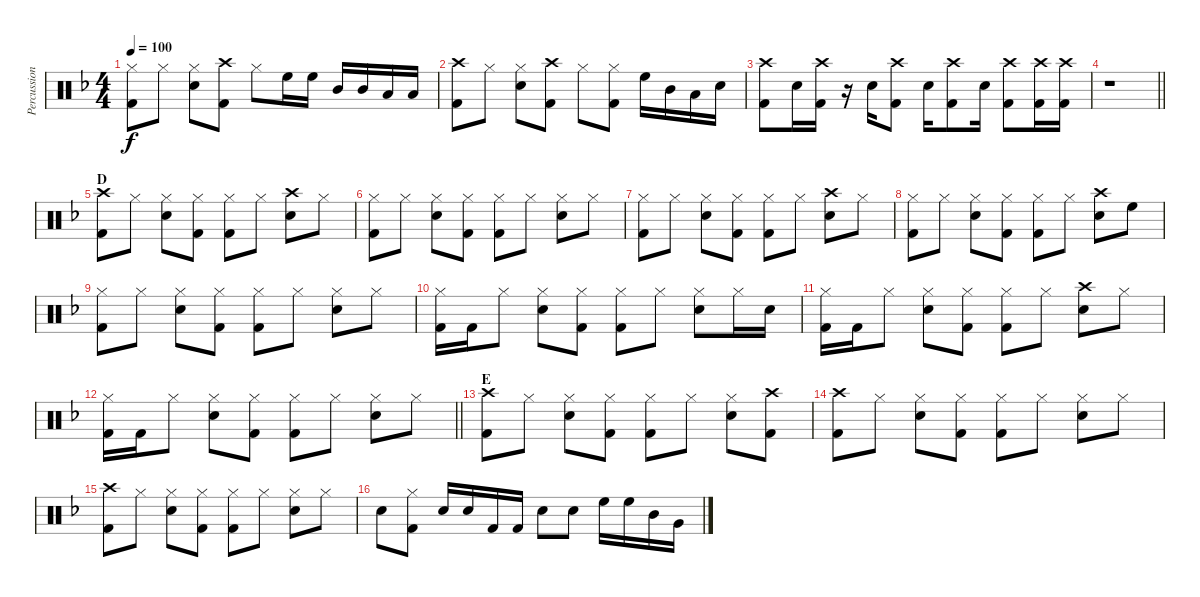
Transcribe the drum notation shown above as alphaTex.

\track ("Percussion" "Percussion") {instrument percussion}
\staff {score}
\articulation defaults
\ts (4 4)
\tempo 100
\clef neutral
\ks f
("Hi-Hat (closed)" "Kick (hit) 2").8{dy f} "Hi-Hat (closed)".8 ("Hi-Hat (closed)" "Snare (hit) 2").8 ("Crash high (hit)" "Kick (hit) 2").8 "Hi-Hat (closed)".8 "High Floor Tom (hit)".16 "High Floor Tom (hit)".16 "Mid Tom (hit)".16 "Mid Tom (hit)".16 "Low Tom (hit)".16 "Low Tom (hit)".16 |
("Crash high (hit)" "Kick (hit) 2").8 "Hi-Hat (closed)".8 ("Hi-Hat (closed)" "Snare (hit) 2").8 ("Crash high (hit)" "Kick (hit) 2").8 "Hi-Hat (closed)".8 ("Hi-Hat (closed)" "Kick (hit) 2").8 "High Floor Tom (hit)".16 "Mid Tom (hit)".16 "Low Tom (hit)".16 "Snare (hit) 2".16 |
("Crash high (hit)" "Kick (hit) 2").8 "Snare (hit) 2".16 ("Crash high (hit)" "Kick (hit) 2").16 r.16 "Snare (hit) 2".16 ("Crash high (hit)" "Kick (hit) 2").8 "Snare (hit) 2".16 ("Crash high (hit)" "Kick (hit) 2").8 "Snare (hit) 2".16 ("Crash high (hit)" "Kick (hit) 2").8 ("Crash high (hit)" "Kick (hit) 2").16 ("Crash high (hit)" "Kick (hit) 2").16 |
\barLineRight lightlight
r.1 |
\section ("" "D")
("Crash high (hit)" "Kick (hit) 2").8 "Hi-Hat (closed)".8 ("Hi-Hat (closed)" "Snare (hit) 2").8 ("Hi-Hat (closed)" "Kick (hit) 2").8 ("Hi-Hat (closed)" "Kick (hit) 2").8 "Hi-Hat (closed)".8 ("Crash high (hit)" "Snare (hit) 2").8 "Hi-Hat (closed)".8 |
("Hi-Hat (closed)" "Kick (hit) 2").8 "Hi-Hat (closed)".8 ("Hi-Hat (closed)" "Snare (hit) 2").8 ("Hi-Hat (closed)" "Kick (hit) 2").8 ("Hi-Hat (closed)" "Kick (hit) 2").8 "Hi-Hat (closed)".8 ("Hi-Hat (closed)" "Snare (hit) 2").8 "Hi-Hat (closed)".8 |
("Hi-Hat (closed)" "Kick (hit) 2").8 "Hi-Hat (closed)".8 ("Hi-Hat (closed)" "Snare (hit) 2").8 ("Hi-Hat (closed)" "Kick (hit) 2").8 ("Hi-Hat (closed)" "Kick (hit) 2").8 "Hi-Hat (closed)".8 ("Crash high (hit)" "Snare (hit) 2").8 "Hi-Hat (closed)".8 |
("Hi-Hat (closed)" "Kick (hit) 2").8 "Hi-Hat (closed)".8 ("Hi-Hat (closed)" "Snare (hit) 2").8 ("Hi-Hat (closed)" "Kick (hit) 2").8 ("Hi-Hat (closed)" "Kick (hit) 2").8 "Hi-Hat (closed)".8 ("Crash high (hit)" "Snare (hit) 2").8 "High Floor Tom (hit)".8 |
("Hi-Hat (closed)" "Kick (hit) 2").8 "Hi-Hat (closed)".8 ("Hi-Hat (closed)" "Snare (hit) 2").8 ("Hi-Hat (closed)" "Kick (hit) 2").8 ("Hi-Hat (closed)" "Kick (hit) 2").8 "Hi-Hat (closed)".8 ("Hi-Hat (closed)" "Snare (hit) 2").8 "Hi-Hat (closed)".8 |
("Hi-Hat (closed)" "Kick (hit) 2").16 "Kick (hit) 2".16 "Hi-Hat (closed)".8 ("Hi-Hat (closed)" "Snare (hit) 2").8 ("Hi-Hat (closed)" "Kick (hit) 2").8 ("Hi-Hat (closed)" "Kick (hit) 2").8 "Hi-Hat (closed)".8 ("Hi-Hat (closed)" "Snare (hit) 2").8 "Hi-Hat (closed)".16 "Snare (hit) 2".16 |
("Hi-Hat (closed)" "Kick (hit) 2").16 "Kick (hit) 2".16 "Hi-Hat (closed)".8 ("Hi-Hat (closed)" "Snare (hit) 2").8 ("Hi-Hat (closed)" "Kick (hit) 2").8 ("Hi-Hat (closed)" "Kick (hit) 2").8 "Hi-Hat (closed)".8 ("Crash high (hit)" "Snare (hit) 2").8 "Hi-Hat (closed)".8 |
\barLineRight lightlight
("Hi-Hat (closed)" "Kick (hit) 2").16 "Kick (hit) 2".16 "Hi-Hat (closed)".8 ("Hi-Hat (closed)" "Snare (hit) 2").8 ("Hi-Hat (closed)" "Kick (hit) 2").8 ("Hi-Hat (closed)" "Kick (hit) 2").8 "Hi-Hat (closed)".8 ("Hi-Hat (closed)" "Snare (hit) 2").8 "Hi-Hat (closed)".8 |
\section ("" "E")
("Crash high (hit)" "Kick (hit) 2").8 "Hi-Hat (closed)".8 ("Hi-Hat (closed)" "Snare (hit) 2").8 ("Hi-Hat (closed)" "Kick (hit) 2").8 ("Hi-Hat (closed)" "Kick (hit) 2").8 "Hi-Hat (closed)".8 ("Hi-Hat (closed)" "Snare (hit) 2").8 ("Crash high (hit)" "Kick (hit) 2").8 |
("Crash high (hit)" "Kick (hit) 2").8 "Hi-Hat (closed)".8 ("Hi-Hat (closed)" "Snare (hit) 2").8 ("Hi-Hat (closed)" "Kick (hit) 2").8 ("Hi-Hat (closed)" "Kick (hit) 2").8 "Hi-Hat (closed)".8 ("Hi-Hat (closed)" "Snare (hit) 2").8 "Hi-Hat (closed)".8 |
("Crash high (hit)" "Kick (hit) 2").8 "Hi-Hat (closed)".8 ("Hi-Hat (closed)" "Snare (hit) 2").8 ("Hi-Hat (closed)" "Kick (hit) 2").8 ("Hi-Hat (closed)" "Kick (hit) 2").8 "Hi-Hat (closed)".8 ("Hi-Hat (closed)" "Snare (hit) 2").8 "Hi-Hat (closed)".8 |
"Snare (hit) 2".8 ("Hi-Hat (closed)" "Kick (hit) 2").8 "Snare (hit) 2".16 "Snare (hit) 2".16 "Kick (hit) 2".16 "Kick (hit) 2".16 "Snare (hit) 2".8 "Snare (hit) 2".8 "High Floor Tom (hit)".16 "High Floor Tom (hit)".16 "Mid Tom (hit)".16 "Very Low Tom (hit)".16
